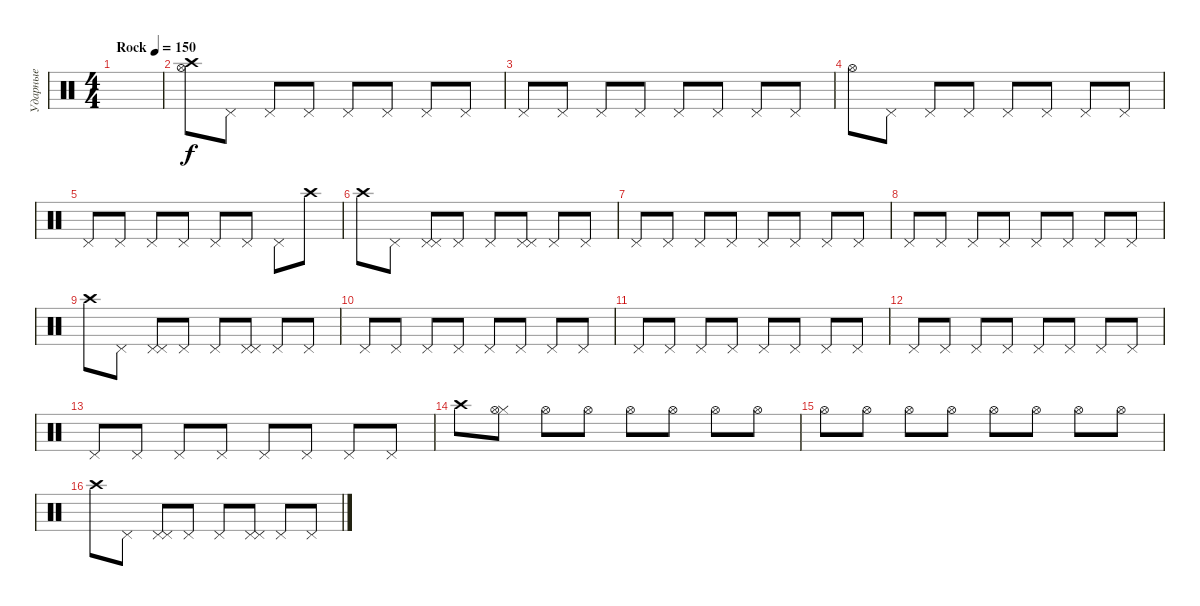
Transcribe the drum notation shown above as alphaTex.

\track ("Ударные" "Ударные") {instrument percussion}
\staff {score}
\articulation defaults
\ts (4 4)
\tempo (150 "Rock")
\clef neutral
\ks c
|
("Hi-Hat (open)" "Crash high (hit)").8 "Pedal Hi-Hat (hit)".8 "Pedal Hi-Hat (hit)".8 "Pedal Hi-Hat (hit)".8 "Pedal Hi-Hat (hit)".8 "Pedal Hi-Hat (hit)".8 "Pedal Hi-Hat (hit)".8 "Pedal Hi-Hat (hit)".8 |
"Pedal Hi-Hat (hit)".8 "Pedal Hi-Hat (hit)".8 "Pedal Hi-Hat (hit)".8 "Pedal Hi-Hat (hit)".8 "Pedal Hi-Hat (hit)".8 "Pedal Hi-Hat (hit)".8 "Pedal Hi-Hat (hit)".8 "Pedal Hi-Hat (hit)".8 |
"Hi-Hat (open)".8 "Pedal Hi-Hat (hit)".8 "Pedal Hi-Hat (hit)".8 "Pedal Hi-Hat (hit)".8 "Pedal Hi-Hat (hit)".8 "Pedal Hi-Hat (hit)".8 "Pedal Hi-Hat (hit)".8 "Pedal Hi-Hat (hit)".8 |
"Pedal Hi-Hat (hit)".8 "Pedal Hi-Hat (hit)".8 "Pedal Hi-Hat (hit)".8 "Pedal Hi-Hat (hit)".8 "Pedal Hi-Hat (hit)".8 "Pedal Hi-Hat (hit)".8 "Pedal Hi-Hat (hit)".8 "Crash high (hit)".8 |
"Crash high (hit)".8 "Pedal Hi-Hat (hit)".8 ("Pedal Hi-Hat (hit)" "Pedal Hi-Hat (hit)").8 "Pedal Hi-Hat (hit)".8 "Pedal Hi-Hat (hit)".8 ("Pedal Hi-Hat (hit)" "Pedal Hi-Hat (hit)").8 "Pedal Hi-Hat (hit)".8 "Pedal Hi-Hat (hit)".8 |
"Pedal Hi-Hat (hit)".8 "Pedal Hi-Hat (hit)".8 "Pedal Hi-Hat (hit)".8 "Pedal Hi-Hat (hit)".8 "Pedal Hi-Hat (hit)".8 "Pedal Hi-Hat (hit)".8 "Pedal Hi-Hat (hit)".8 "Pedal Hi-Hat (hit)".8 |
"Pedal Hi-Hat (hit)".8 "Pedal Hi-Hat (hit)".8 "Pedal Hi-Hat (hit)".8 "Pedal Hi-Hat (hit)".8 "Pedal Hi-Hat (hit)".8 "Pedal Hi-Hat (hit)".8 "Pedal Hi-Hat (hit)".8 "Pedal Hi-Hat (hit)".8 |
"Crash high (hit)".8 "Pedal Hi-Hat (hit)".8 ("Pedal Hi-Hat (hit)" "Pedal Hi-Hat (hit)").8 "Pedal Hi-Hat (hit)".8 "Pedal Hi-Hat (hit)".8 ("Pedal Hi-Hat (hit)" "Pedal Hi-Hat (hit)").8 "Pedal Hi-Hat (hit)".8 "Pedal Hi-Hat (hit)".8 |
"Pedal Hi-Hat (hit)".8 "Pedal Hi-Hat (hit)".8 "Pedal Hi-Hat (hit)".8 "Pedal Hi-Hat (hit)".8 "Pedal Hi-Hat (hit)".8 "Pedal Hi-Hat (hit)".8 "Pedal Hi-Hat (hit)".8 "Pedal Hi-Hat (hit)".8 |
"Pedal Hi-Hat (hit)".8 "Pedal Hi-Hat (hit)".8 "Pedal Hi-Hat (hit)".8 "Pedal Hi-Hat (hit)".8 "Pedal Hi-Hat (hit)".8 "Pedal Hi-Hat (hit)".8 "Pedal Hi-Hat (hit)".8 "Pedal Hi-Hat (hit)".8 |
"Pedal Hi-Hat (hit)".8 "Pedal Hi-Hat (hit)".8 "Pedal Hi-Hat (hit)".8 "Pedal Hi-Hat (hit)".8 "Pedal Hi-Hat (hit)".8 "Pedal Hi-Hat (hit)".8 "Pedal Hi-Hat (hit)".8 "Pedal Hi-Hat (hit)".8 |
"Pedal Hi-Hat (hit)".8 "Pedal Hi-Hat (hit)".8 "Pedal Hi-Hat (hit)".8 "Pedal Hi-Hat (hit)".8 "Pedal Hi-Hat (hit)".8 "Pedal Hi-Hat (hit)".8 "Pedal Hi-Hat (hit)".8 "Pedal Hi-Hat (hit)".8 |
"Crash high (hit)".8 ("Hi-Hat (closed)" "Hi-Hat (open)").8 "Hi-Hat (open)".8 "Hi-Hat (open)".8 "Hi-Hat (open)".8 "Hi-Hat (open)".8 "Hi-Hat (open)".8 "Hi-Hat (open)".8 |
"Hi-Hat (open)".8 "Hi-Hat (open)".8 "Hi-Hat (open)".8 "Hi-Hat (open)".8 "Hi-Hat (open)".8 "Hi-Hat (open)".8 "Hi-Hat (open)".8 "Hi-Hat (open)".8 |
"Crash high (hit)".8 "Pedal Hi-Hat (hit)".8 ("Pedal Hi-Hat (hit)" "Pedal Hi-Hat (hit)").8 "Pedal Hi-Hat (hit)".8 "Pedal Hi-Hat (hit)".8 ("Pedal Hi-Hat (hit)" "Pedal Hi-Hat (hit)").8 "Pedal Hi-Hat (hit)".8 "Pedal Hi-Hat (hit)".8
